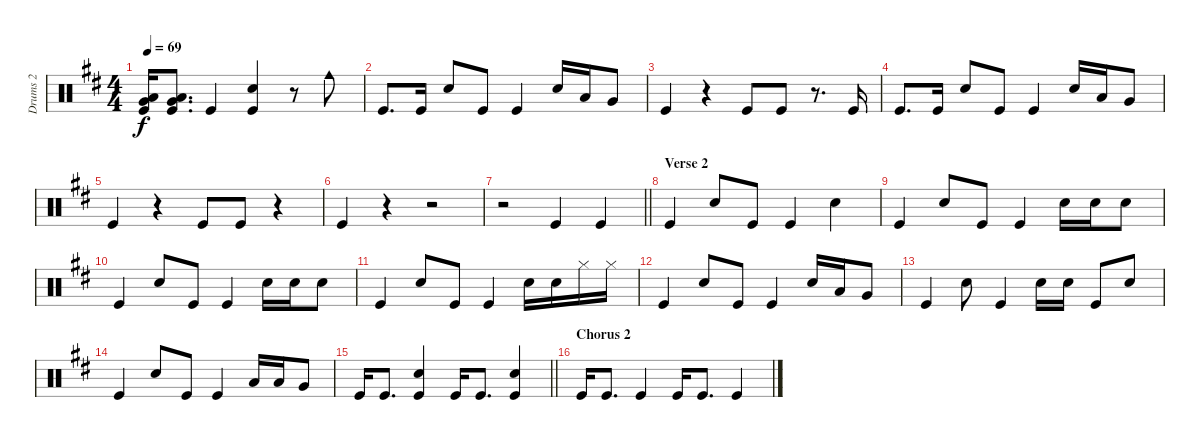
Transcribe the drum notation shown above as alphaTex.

\track ("Drums 2" "Drums 2") {instrument percussion}
\staff {score}
\articulation defaults
\ts (4 4)
\tempo 69
\clef neutral
\ks d
("Kick (hit)" "Very Low Tom (hit)" "Low Tom (hit)").16{dy f} ("Kick (hit)" "Very Low Tom (hit)" "Low Tom (hit)").8{d} "Kick (hit)".4 ("Kick (hit)" "Snare (hit) 2").4 r.8 "Cowbell medium (hit)".8 |
"Kick (hit)".8{d} "Kick (hit)".16 "Snare (hit) 2".8 "Kick (hit)".8 "Kick (hit)".4 "Snare (hit) 2".16 "Low Tom (hit)".16 "Very Low Tom (hit)".8 |
"Kick (hit)".4 r.4 "Kick (hit)".8 "Kick (hit)".8 r.8{d} "Kick (hit)".16 |
"Kick (hit)".8{d} "Kick (hit)".16 "Snare (hit) 2".8 "Kick (hit)".8 "Kick (hit)".4 "Snare (hit) 2".16 "Low Tom (hit)".16 "Very Low Tom (hit)".8 |
"Kick (hit)".4 r.4 "Kick (hit)".8 "Kick (hit)".8 r.4 |
"Kick (hit)".4 r.4 r.2 |
\barLineRight lightlight
r.2 "Kick (hit)".4 "Kick (hit)".4 |
\section ("" "Verse 2")
"Kick (hit)".4 "Snare (hit) 2".8 "Kick (hit)".8 "Kick (hit)".4 "Snare (hit) 2".4 |
"Kick (hit)".4 "Snare (hit) 2".8 "Kick (hit)".8 "Kick (hit)".4 "Snare (hit) 2".16 "Snare (hit) 2".16 "Snare (hit) 2".8 |
"Kick (hit)".4 "Snare (hit) 2".8 "Kick (hit)".8 "Kick (hit)".4 "Snare (hit) 2".16 "Snare (hit) 2".16 "Snare (hit) 2".8 |
"Kick (hit)".4 "Snare (hit) 2".8 "Kick (hit)".8 "Kick (hit)".4 "Snare (hit) 2".16 "Snare (hit) 2".16 "Hi-Hat (closed)".16 "Hi-Hat (closed)".16 |
"Kick (hit)".4 "Snare (hit) 2".8 "Kick (hit)".8 "Kick (hit)".4 "Snare (hit) 2".16 "Low Tom (hit)".16 "Very Low Tom (hit)".8 |
"Kick (hit)".4 "Snare (hit) 2".8 "Kick (hit)".4 "Snare (hit) 2".16 "Snare (hit) 2".16 "Kick (hit)".8 "Snare (hit) 2".8 |
"Kick (hit)".4 "Snare (hit) 2".8 "Kick (hit)".8 "Kick (hit)".4 "Low Tom (hit)".16 "Low Tom (hit)".16 "Very Low Tom (hit)".8 |
\barLineRight lightlight "Kick (hit)".16 "Kick (hit)".8{d}
("Kick (hit)" "Snare (hit) 2").4 "Kick (hit)".16 "Kick (hit)".8{d} ("Kick (hit)" "Snare (hit) 2").4 |
\section ("" "Chorus 2")
"Kick (hit)".16 "Kick (hit)".8{d} "Kick (hit)".4 "Kick (hit)".16 "Kick (hit)".8{d} "Kick (hit)".4
